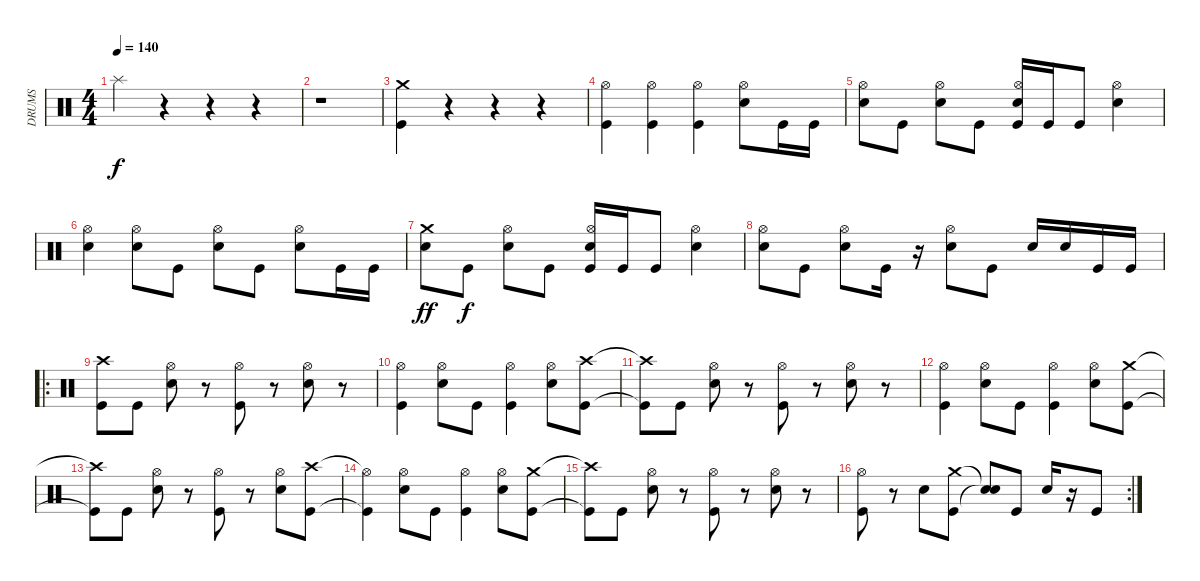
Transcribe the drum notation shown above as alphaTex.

\track ("DRUMS" "DRUMS") {instrument percussion}
\staff {score}
\articulation defaults
\ts (4 4)
\tempo 140
\clef neutral
\ks c "Splash (hit)".4{dy f}
r.4 r.4 r.4 |
r.1 |
("Crash medium (hit)" "Kick (hit)").4 r.4 r.4 r.4 |
("Hi-Hat (open)" "Kick (hit)").4 ("Hi-Hat (open)" "Kick (hit)").4 ("Hi-Hat (open)" "Kick (hit)").4 ("Hi-Hat (open)" "Electric Snare (hit)").8 "Kick (hit)".16 "Kick (hit)".16 |
("Hi-Hat (open)" "Electric Snare (hit)").8 "Kick (hit)".8 ("Hi-Hat (open)" "Electric Snare (hit)").8 "Kick (hit)".8 ("Hi-Hat (open)" "Kick (hit)" "Electric Snare (hit)").16 "Kick (hit)".16 "Kick (hit)".8 ("Hi-Hat (open)" "Electric Snare (hit)").4 |
("Hi-Hat (open)" "Electric Snare (hit)").4 ("Hi-Hat (open)" "Electric Snare (hit)").8 "Kick (hit)".8 ("Hi-Hat (open)" "Electric Snare (hit)").8 "Kick (hit)".8 ("Hi-Hat (open)" "Electric Snare (hit)").8 "Kick (hit)".16 "Kick (hit)".16 |
("Crash medium (hit)" "Electric Snare (hit)").8{dy ff} "Kick (hit)".8{dy f} ("Hi-Hat (open)" "Electric Snare (hit)").8 "Kick (hit)".8 ("Hi-Hat (open)" "Kick (hit)" "Electric Snare (hit)").16 "Kick (hit)".16 "Kick (hit)".8 ("Hi-Hat (open)" "Electric Snare (hit)").4 |
("Hi-Hat (open)" "Electric Snare (hit)").8 "Kick (hit)".8 ("Hi-Hat (open)" "Electric Snare (hit)").8 "Kick (hit)".16 r.16 ("Hi-Hat (open)" "Electric Snare (hit)").8 "Kick (hit)".8 "Electric Snare (hit)".16 "Electric Snare (hit)".16 "Kick (hit)".16 "Kick (hit)".16 |
\ro
("Crash high (hit)" "Kick (hit)").8 "Kick (hit)".8 ("Hi-Hat (open)" "Electric Snare (hit)").8 r.8 ("Hi-Hat (open)" "Kick (hit)").8 r.8 ("Hi-Hat (open)" "Electric Snare (hit)").8 r.8 |
("Hi-Hat (open)" "Kick (hit)").4 ("Hi-Hat (open)" "Electric Snare (hit)").8 "Kick (hit)".8 ("Hi-Hat (open)" "Kick (hit)").4 ("Hi-Hat (open)" "Electric Snare (hit)").8 ("Crash high (hit)" "Kick (hit)").8 |
("Crash high (hit)"{t} "Kick (hit)"{t}).8 "Kick (hit)".8 ("Hi-Hat (open)" "Electric Snare (hit)").8 r.8 ("Hi-Hat (open)" "Kick (hit)").8 r.8 ("Hi-Hat (open)" "Electric Snare (hit)").8 r.8 |
("Hi-Hat (open)" "Kick (hit)").4 ("Hi-Hat (open)" "Electric Snare (hit)").8 "Kick (hit)".8 ("Hi-Hat (open)" "Kick (hit)").4 ("Hi-Hat (open)" "Electric Snare (hit)").8 ("Crash medium (hit)" "Kick (hit)").8 |
("Crash high (hit)"{t} "Kick (hit)"{t}).8 "Kick (hit)".8 ("Hi-Hat (open)" "Electric Snare (hit)").8 r.8 ("Hi-Hat (open)" "Kick (hit)").8 r.8 ("Hi-Hat (open)" "Electric Snare (hit)").8 ("Crash high (hit)" "Kick (hit)").8 |
("Hi-Hat (open)"{t} "Kick (hit)"{t}).4 ("Hi-Hat (open)" "Electric Snare (hit)").8 "Kick (hit)".8 ("Hi-Hat (open)" "Kick (hit)").4 ("Hi-Hat (open)" "Electric Snare (hit)").8 ("Crash medium (hit)" "Kick (hit)").8 |
("Crash high (hit)"{t} "Kick (hit)"{t}).8 "Kick (hit)".8 ("Hi-Hat (open)" "Electric Snare (hit)").8 r.8 ("Hi-Hat (open)" "Kick (hit)").8 r.8 ("Hi-Hat (open)" "Electric Snare (hit)").8 r.8 |
\rc 2
("Hi-Hat (open)" "Kick (hit)").8 r.8 "Electric Snare (hit)".8 ("Crash medium (hit)" "Kick (hit)").8 ("Snare (hit)"{t} "Snare (hit)"{t}).8 "Kick (hit)".8 "Electric Snare (hit)".16 r.16 "Kick (hit)".8
